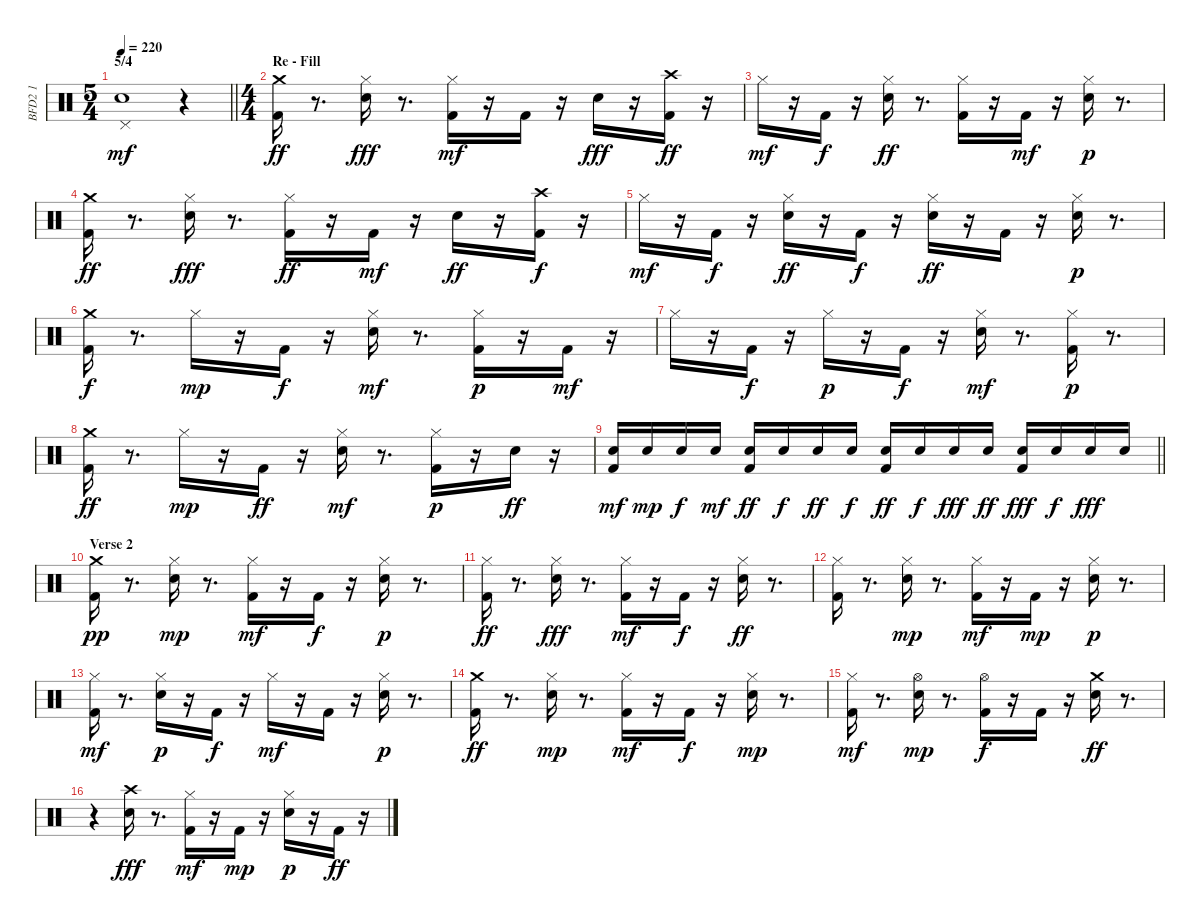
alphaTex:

\track ("BFD2 1" "BFD2 1") {instrument percussion}
\staff {score}
\articulation defaults
\ts (5 4)
\section ("" "5/4")
\tempo 220
\clef neutral
\barLineRight lightlight
\ks c
("Pedal Hi-Hat (hit)" "Snare (hit) 2").1{dy mf} r.4 |
\ts (4 4)
\section ("" "Re - Fill")
("Crash medium (hit)" "Kick (hit) 2").16{dy ff} r.8{d} ("Hi-Hat (closed)" "Snare (hit) 2").16{dy fff} r.8{d} ("Hi-Hat (closed)" "Kick (hit) 2").16{dy mf} r.16 "Kick (hit) 2".16 r.16 "Snare (hit) 2".16{dy fff} r.16 ("Kick (hit) 2" "Crash high (hit)").16{dy ff} r.16 |
"Hi-Hat (closed)".16{dy mf} r.16 "Kick (hit) 2".16{dy f} r.16 ("Hi-Hat (closed)" "Snare (hit) 2").16{dy ff} r.8{d} ("Hi-Hat (closed)" "Kick (hit) 2").16 r.16 "Kick (hit) 2".16{dy mf} r.16 ("Snare (hit) 2" "Hi-Hat (closed)").16{dy p} r.8{d} |
("Kick (hit) 2" "Crash medium (hit)").16{dy ff} r.8{d} ("Hi-Hat (closed)" "Snare (hit) 2").16{dy fff} r.8{d} ("Hi-Hat (closed)" "Kick (hit) 2").16{dy ff} r.16 "Kick (hit) 2".16{dy mf} r.16 "Snare (hit) 2".16{dy ff} r.16 ("Kick (hit) 2" "Crash high (hit)").16{dy f} r.16 |
"Hi-Hat (closed)".16{dy mf} r.16 "Kick (hit) 2".16{dy f} r.16 ("Hi-Hat (closed)" "Snare (hit) 2").16{dy ff} r.16 "Kick (hit) 2".16{dy f} r.16 ("Hi-Hat (closed)" "Snare (hit) 2").16{dy ff} r.16 "Kick (hit) 2".16 r.16 ("Snare (hit) 2" "Hi-Hat (closed)").16{dy p} r.8{d} |
("Crash medium (hit)" "Kick (hit) 2").16{dy f} r.8{d} "Hi-Hat (closed)".16{dy mp} r.16 "Kick (hit) 2".16{dy f} r.16 ("Snare (hit) 2" "Hi-Hat (closed)").16{dy mf} r.8{d} ("Kick (hit) 2" "Hi-Hat (closed)").16{dy p} r.16 "Kick (hit) 2".16{dy mf} r.16 |
"Hi-Hat (closed)".16 r.16 "Kick (hit) 2".16{dy f} r.16 "Hi-Hat (closed)".16{dy p} r.16 "Kick (hit) 2".16{dy f} r.16 ("Snare (hit) 2" "Hi-Hat (closed)").16{dy mf} r.8{d} ("Kick (hit) 2" "Hi-Hat (closed)").16{dy p} r.8{d} |
("Crash medium (hit)" "Kick (hit) 2").16{dy ff} r.8{d} "Hi-Hat (closed)".16{dy mp} r.16 "Kick (hit) 2".16{dy ff} r.16 ("Snare (hit) 2" "Hi-Hat (closed)").16{dy mf} r.8{d} ("Hi-Hat (closed)" "Kick (hit) 2").16{dy p} r.16 "Snare (hit) 2".16{dy ff} r.16 |
\barLineRight lightlight
("Snare (hit) 2" "Kick (hit) 2").16{dy mf} "Snare (hit) 2".16{dy mp} "Snare (hit) 2".16{dy f} "Snare (hit) 2".16{dy mf} ("Kick (hit) 2" "Snare (hit) 2").16{dy ff} "Snare (hit) 2".16{dy f} "Snare (hit) 2".16{dy ff} "Snare (hit) 2".16{dy f} ("Snare (hit) 2" "Kick (hit) 2").16{dy ff} "Snare (hit) 2".16{dy f} "Snare (hit) 2".16{dy fff} "Snare (hit) 2".16{dy ff} ("Kick (hit) 2" "Snare (hit) 2").16{dy fff} "Snare (hit) 2".16{dy f} "Snare (hit) 2".16{dy fff} "Snare (hit) 2".16 |
\section ("" "Verse 2")
("Kick (hit) 2" "Crash medium (hit)").16{dy pp} r.8{d} ("Snare (hit) 2" "Hi-Hat (closed)").16{dy mp} r.8{d} ("Kick (hit) 2" "Hi-Hat (closed)").16{dy mf} r.16 "Kick (hit) 2".16{dy f} r.16 ("Snare (hit) 2" "Hi-Hat (closed)").16{dy p} r.8{d} |
("Hi-Hat (closed)" "Kick (hit) 2").16{dy ff} r.8{d} ("Hi-Hat (closed)" "Snare (hit) 2").16{dy fff} r.8{d} ("Kick (hit) 2" "Hi-Hat (closed)").16{dy mf} r.16 "Kick (hit) 2".16{dy f} r.16 ("Hi-Hat (closed)" "Snare (hit) 2").16{dy ff} r.8{d} |
("Hi-Hat (closed)" "Kick (hit) 2").16 r.8{d} ("Snare (hit) 2" "Hi-Hat (closed)").16{dy mp} r.8{d} ("Hi-Hat (closed)" "Kick (hit) 2").16{dy mf} r.16 "Kick (hit) 2".16{dy mp} r.16 ("Snare (hit) 2" "Hi-Hat (closed)").16{dy p} r.8{d} |
("Kick (hit) 2" "Hi-Hat (closed)").16{dy mf} r.8{d} ("Snare (hit) 2" "Hi-Hat (closed)").16{dy p} r.16 "Kick (hit) 2".16{dy f} r.16 "Hi-Hat (closed)".16{dy mf} r.16 "Kick (hit) 2".16 r.16 ("Snare (hit) 2" "Hi-Hat (closed)").16{dy p} r.8{d} |
("Crash medium (hit)" "Kick (hit) 2").16{dy ff} r.8{d} ("Snare (hit) 2" "Hi-Hat (closed)").16{dy mp} r.8{d} ("Hi-Hat (closed)" "Kick (hit) 2").16{dy mf} r.16 "Kick (hit) 2".16{dy f} r.16 ("Snare (hit) 2" "Hi-Hat (closed)").16{dy mp} r.8{d} |
("Kick (hit) 2" "Hi-Hat (closed)").16{dy mf} r.8{d} ("Snare (hit) 2" "Hi-Hat (open)").16{dy mp} r.8{d} ("Hi-Hat (open)" "Kick (hit) 2").16{dy f} r.16 "Kick (hit) 2".16 r.16 ("Crash medium (hit)" "Snare (hit) 2").16{dy ff} r.8{d} |
r.4 ("Snare (hit) 2" "Crash high (hit)").16{dy fff} r.8{d} ("Hi-Hat (closed)" "Kick (hit) 2").16{dy mf} r.16 "Kick (hit) 2".16{dy mp} r.16 ("Snare (hit) 2" "Hi-Hat (closed)").16{dy p} r.16 "Kick (hit) 2".16{dy ff} r.16
